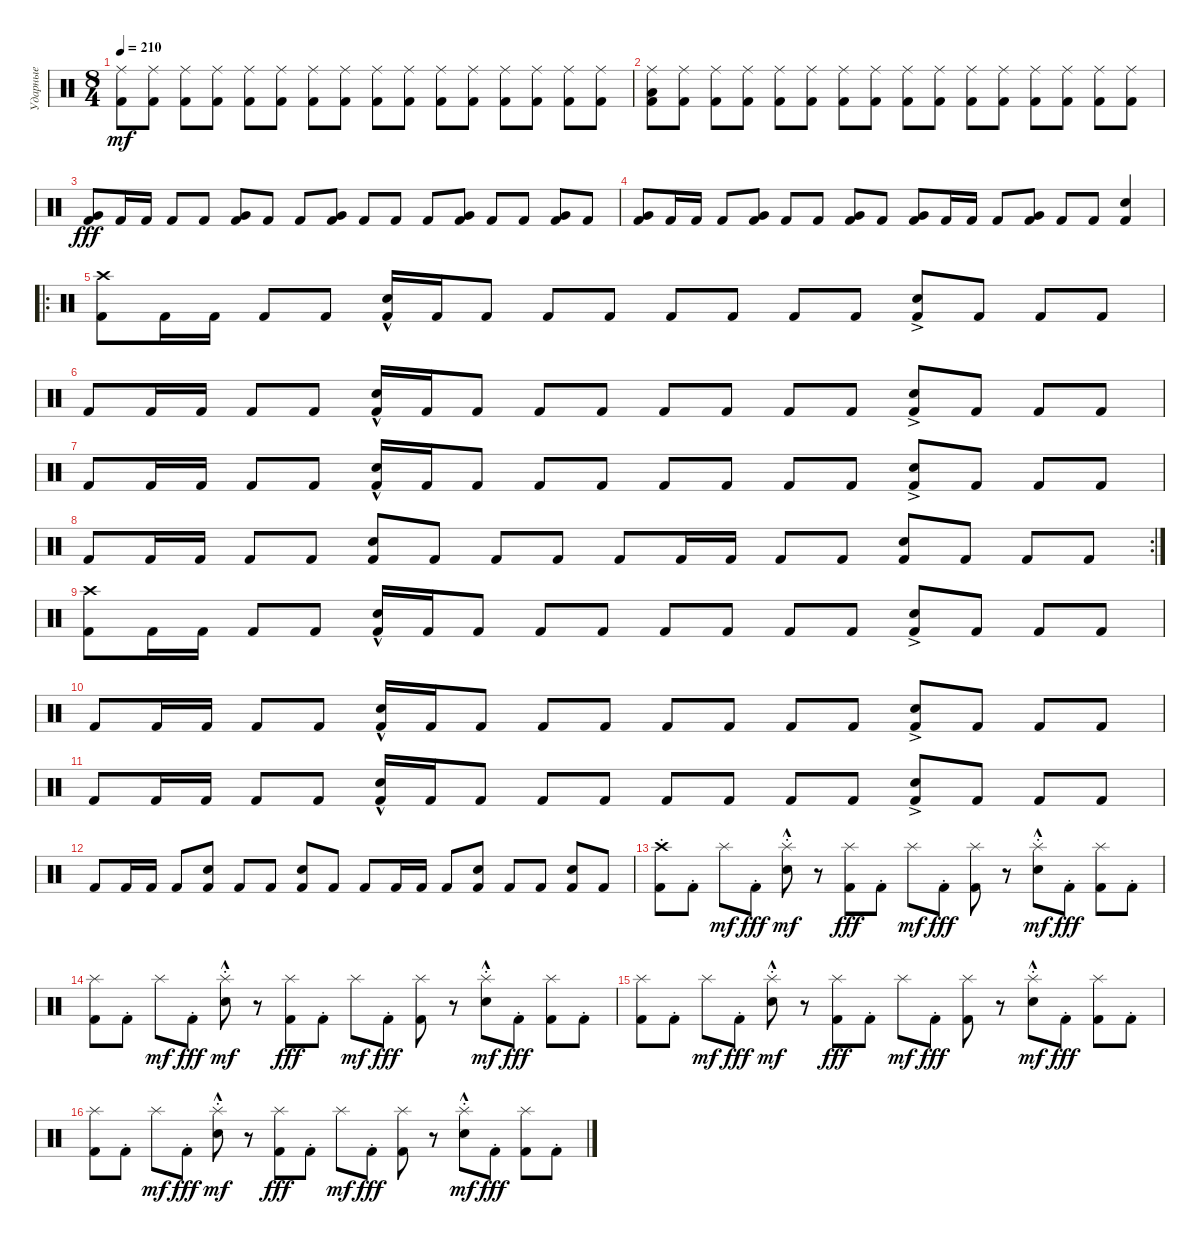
\track ("Ударные" "Ударные") {instrument percussion}
\staff {score}
\articulation defaults
\ts (8 4)
\tempo 210
\clef neutral
\ks c
("Kick (hit) 2" "Ride (middle)").8{dy mf} ("Kick (hit) 2" "Ride (middle)").8 ("Kick (hit) 2" "Ride (middle)").8 ("Kick (hit) 2" "Ride (middle)").8 ("Kick (hit) 2" "Ride (middle)").8 ("Kick (hit) 2" "Ride (middle)").8 ("Kick (hit) 2" "Ride (middle)").8 ("Kick (hit) 2" "Ride (middle)").8 ("Kick (hit) 2" "Ride (middle)").8 ("Kick (hit) 2" "Ride (middle)").8 ("Kick (hit) 2" "Ride (middle)").8 ("Kick (hit) 2" "Ride (middle)").8 ("Kick (hit) 2" "Ride (middle)").8 ("Kick (hit) 2" "Ride (middle)").8 ("Kick (hit) 2" "Ride (middle)").8 ("Kick (hit) 2" "Ride (middle)").8 |
("Kick (hit) 2" "Low Floor Tom (hit)" "Ride (middle)").8 ("Kick (hit) 2" "Ride (middle)").8 ("Kick (hit) 2" "Ride (middle)").8 ("Kick (hit) 2" "Ride (middle)").8 ("Kick (hit) 2" "Ride (middle)").8 ("Kick (hit) 2" "Ride (middle)").8 ("Kick (hit) 2" "Ride (middle)").8 ("Kick (hit) 2" "Ride (middle)").8 ("Kick (hit) 2" "Ride (middle)").8 ("Kick (hit) 2" "Ride (middle)").8 ("Kick (hit) 2" "Ride (middle)").8 ("Kick (hit) 2" "Ride (middle)").8 ("Kick (hit) 2" "Ride (middle)").8 ("Kick (hit) 2" "Ride (middle)").8 ("Kick (hit) 2" "Ride (middle)").8 ("Kick (hit) 2" "Ride (middle)").8 |
("Kick (hit) 2" "Very Low Tom (hit)").8{dy fff} "Kick (hit) 2".16 "Kick (hit) 2".16 "Kick (hit) 2".8 "Kick (hit) 2".8 ("Kick (hit) 2" "Very Low Tom (hit)").8 "Kick (hit) 2".8 "Kick (hit) 2".8 ("Kick (hit) 2" "Very Low Tom (hit)").8 "Kick (hit) 2".8 "Kick (hit) 2".8 "Kick (hit) 2".8 ("Kick (hit) 2" "Very Low Tom (hit)").8 "Kick (hit) 2".8 "Kick (hit) 2".8 ("Kick (hit) 2" "Very Low Tom (hit)").8 "Kick (hit) 2".8 |
("Kick (hit) 2" "Very Low Tom (hit)").8 "Kick (hit) 2".16 "Kick (hit) 2".16 "Kick (hit) 2".8 ("Kick (hit) 2" "Very Low Tom (hit)").8 "Kick (hit) 2".8 "Kick (hit) 2".8 ("Kick (hit) 2" "Very Low Tom (hit)").8 "Kick (hit) 2".8 ("Kick (hit) 2" "Very Low Tom (hit)").8 "Kick (hit) 2".16 "Kick (hit) 2".16 "Kick (hit) 2".8 ("Kick (hit) 2" "Very Low Tom (hit)").8 "Kick (hit) 2".8 "Kick (hit) 2".8 ("Kick (hit) 2" "Electric Snare (hit)").4 |
\ro
("Kick (hit) 2" "Crash high (hit)").8 "Kick (hit) 2".16 "Kick (hit) 2".16 "Kick (hit) 2".8 "Kick (hit) 2".8 ("Kick (hit) 2" "Electric Snare (hit)"{hac}).16 "Kick (hit) 2".16 "Kick (hit) 2".8 "Kick (hit) 2".8 "Kick (hit) 2".8 "Kick (hit) 2".8 "Kick (hit) 2".8 "Kick (hit) 2".8 "Kick (hit) 2".8 ("Kick (hit) 2" "Electric Snare (hit)"{ac}).8 "Kick (hit) 2".8 "Kick (hit) 2".8 "Kick (hit) 2".8 |
"Kick (hit) 2".8 "Kick (hit) 2".16 "Kick (hit) 2".16 "Kick (hit) 2".8 "Kick (hit) 2".8 ("Kick (hit) 2" "Electric Snare (hit)"{hac}).16 "Kick (hit) 2".16 "Kick (hit) 2".8 "Kick (hit) 2".8 "Kick (hit) 2".8 "Kick (hit) 2".8 "Kick (hit) 2".8 "Kick (hit) 2".8 "Kick (hit) 2".8 ("Kick (hit) 2" "Electric Snare (hit)"{ac}).8 "Kick (hit) 2".8 "Kick (hit) 2".8 "Kick (hit) 2".8 |
"Kick (hit) 2".8 "Kick (hit) 2".16 "Kick (hit) 2".16 "Kick (hit) 2".8 "Kick (hit) 2".8 ("Kick (hit) 2" "Electric Snare (hit)"{hac}).16 "Kick (hit) 2".16 "Kick (hit) 2".8 "Kick (hit) 2".8 "Kick (hit) 2".8 "Kick (hit) 2".8 "Kick (hit) 2".8 "Kick (hit) 2".8 "Kick (hit) 2".8 ("Kick (hit) 2" "Electric Snare (hit)"{ac}).8 "Kick (hit) 2".8 "Kick (hit) 2".8 "Kick (hit) 2".8 |
\rc 2 "Kick (hit) 2".8 "Kick (hit) 2".16 "Kick (hit) 2".16 "Kick (hit) 2".8 "Kick (hit) 2".8
("Kick (hit) 2" "Electric Snare (hit)").8 "Kick (hit) 2".8 "Kick (hit) 2".8 "Kick (hit) 2".8 "Kick (hit) 2".8 "Kick (hit) 2".16 "Kick (hit) 2".16 "Kick (hit) 2".8 "Kick (hit) 2".8 ("Kick (hit) 2" "Electric Snare (hit)").8 "Kick (hit) 2".8 "Kick (hit) 2".8 "Kick (hit) 2".8 |
("Kick (hit) 2" "Crash high (hit)").8 "Kick (hit) 2".16 "Kick (hit) 2".16 "Kick (hit) 2".8 "Kick (hit) 2".8 ("Kick (hit) 2" "Electric Snare (hit)"{hac}).16 "Kick (hit) 2".16 "Kick (hit) 2".8 "Kick (hit) 2".8 "Kick (hit) 2".8 "Kick (hit) 2".8 "Kick (hit) 2".8 "Kick (hit) 2".8 "Kick (hit) 2".8 ("Kick (hit) 2" "Electric Snare (hit)"{ac}).8 "Kick (hit) 2".8 "Kick (hit) 2".8 "Kick (hit) 2".8 |
"Kick (hit) 2".8 "Kick (hit) 2".16 "Kick (hit) 2".16 "Kick (hit) 2".8 "Kick (hit) 2".8 ("Kick (hit) 2" "Electric Snare (hit)"{hac}).16 "Kick (hit) 2".16 "Kick (hit) 2".8 "Kick (hit) 2".8 "Kick (hit) 2".8 "Kick (hit) 2".8 "Kick (hit) 2".8 "Kick (hit) 2".8 "Kick (hit) 2".8 ("Kick (hit) 2" "Electric Snare (hit)"{ac}).8 "Kick (hit) 2".8 "Kick (hit) 2".8 "Kick (hit) 2".8 |
"Kick (hit) 2".8 "Kick (hit) 2".16 "Kick (hit) 2".16 "Kick (hit) 2".8 "Kick (hit) 2".8 ("Kick (hit) 2" "Electric Snare (hit)"{hac}).16 "Kick (hit) 2".16 "Kick (hit) 2".8 "Kick (hit) 2".8 "Kick (hit) 2".8 "Kick (hit) 2".8 "Kick (hit) 2".8 "Kick (hit) 2".8 "Kick (hit) 2".8 ("Kick (hit) 2" "Electric Snare (hit)"{ac}).8 "Kick (hit) 2".8 "Kick (hit) 2".8 "Kick (hit) 2".8 |
"Kick (hit) 2".8 "Kick (hit) 2".16 "Kick (hit) 2".16 "Kick (hit) 2".8 ("Kick (hit) 2" "Electric Snare (hit)").8 "Kick (hit) 2".8 "Kick (hit) 2".8 ("Kick (hit) 2" "Electric Snare (hit)").8 "Kick (hit) 2".8 "Kick (hit) 2".8 "Kick (hit) 2".16 "Kick (hit) 2".16 "Kick (hit) 2".8 ("Kick (hit) 2" "Electric Snare (hit)").8 "Kick (hit) 2".8 "Kick (hit) 2".8 ("Kick (hit) 2" "Electric Snare (hit)").8 "Kick (hit) 2".8 |
("Kick (hit) 2"{st} "Crash high (hit)"{st}).8 "Kick (hit) 2"{st}.8 "Splash (hit)".8{dy mf} "Kick (hit) 2"{st}.8{dy fff} ("Splash (hit)"{hac st} "Electric Snare (hit)"{st}).8{dy mf} r.8 ("Splash (hit)" "Kick (hit) 2").8{dy fff} "Kick (hit) 2"{st}.8 "Splash (hit)".8{dy mf} "Kick (hit) 2"{st}.8{dy fff} ("Splash (hit)" "Kick (hit) 2").8 r.8 ("Splash (hit)"{hac st} "Electric Snare (hit)"{st}).8{dy mf} "Kick (hit) 2"{st}.8{dy fff} ("Splash (hit)" "Kick (hit) 2").8 "Kick (hit) 2"{st}.8 |
("Splash (hit)" "Kick (hit) 2").8 "Kick (hit) 2"{st}.8 "Splash (hit)".8{dy mf} "Kick (hit) 2"{st}.8{dy fff} ("Splash (hit)"{hac st} "Electric Snare (hit)"{st}).8{dy mf} r.8 ("Splash (hit)" "Kick (hit) 2").8{dy fff} "Kick (hit) 2"{st}.8 "Splash (hit)".8{dy mf} "Kick (hit) 2"{st}.8{dy fff} ("Splash (hit)" "Kick (hit) 2").8 r.8 ("Splash (hit)"{hac st} "Electric Snare (hit)"{st}).8{dy mf} "Kick (hit) 2"{st}.8{dy fff} ("Splash (hit)" "Kick (hit) 2").8 "Kick (hit) 2"{st}.8 |
("Splash (hit)" "Kick (hit) 2").8 "Kick (hit) 2"{st}.8 "Splash (hit)".8{dy mf} "Kick (hit) 2"{st}.8{dy fff} ("Splash (hit)"{hac st} "Electric Snare (hit)"{st}).8{dy mf} r.8 ("Splash (hit)" "Kick (hit) 2").8{dy fff} "Kick (hit) 2"{st}.8 "Splash (hit)".8{dy mf} "Kick (hit) 2"{st}.8{dy fff} ("Splash (hit)" "Kick (hit) 2").8 r.8 ("Splash (hit)"{hac st} "Electric Snare (hit)"{st}).8{dy mf} "Kick (hit) 2"{st}.8{dy fff} ("Splash (hit)" "Kick (hit) 2").8 "Kick (hit) 2"{st}.8 |
("Splash (hit)" "Kick (hit) 2").8 "Kick (hit) 2"{st}.8 "Splash (hit)".8{dy mf} "Kick (hit) 2"{st}.8{dy fff} ("Splash (hit)"{hac st} "Electric Snare (hit)"{st}).8{dy mf} r.8 ("Splash (hit)" "Kick (hit) 2").8{dy fff} "Kick (hit) 2"{st}.8 "Splash (hit)".8{dy mf} "Kick (hit) 2"{st}.8{dy fff} ("Splash (hit)" "Kick (hit) 2").8 r.8 ("Splash (hit)"{hac st} "Electric Snare (hit)"{st}).8{dy mf} "Kick (hit) 2"{st}.8{dy fff} ("Splash (hit)" "Kick (hit) 2").8 "Kick (hit) 2"{st}.8
